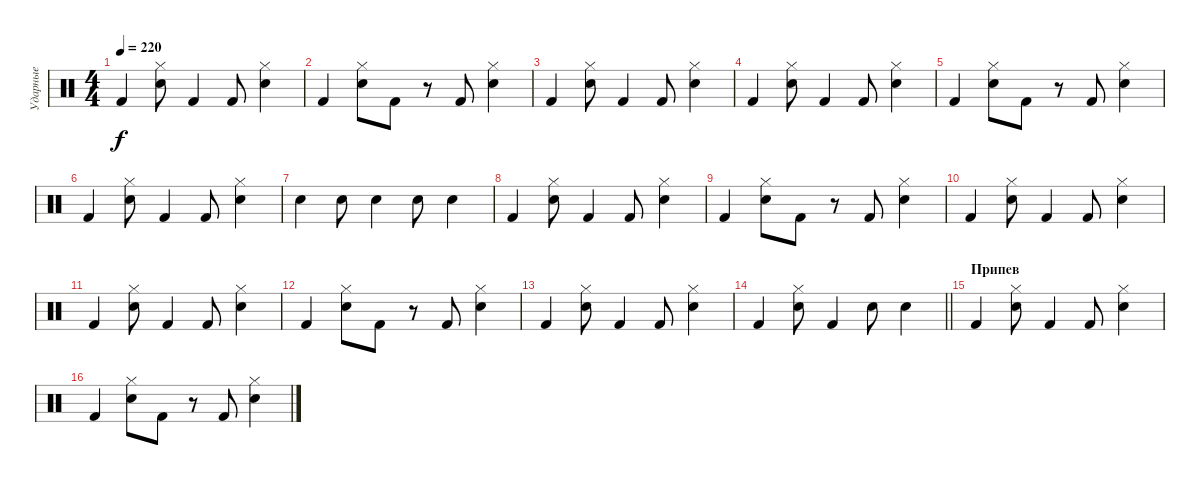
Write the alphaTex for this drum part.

\track ("Ударные" "Ударные") {instrument percussion}
\staff {score}
\articulation defaults
\ts (4 4)
\tempo 220
\clef neutral
\ks c "Kick (hit) 2".4{dy f}
("Hi-Hat (closed)" "Snare (hit) 2").8 "Kick (hit) 2".4 "Kick (hit) 2".8 ("Hi-Hat (closed)" "Snare (hit) 2").4 |
"Kick (hit) 2".4 ("Hi-Hat (closed)" "Snare (hit) 2").8 "Kick (hit) 2".8 r.8 "Kick (hit) 2".8 ("Hi-Hat (closed)" "Snare (hit) 2").4 |
"Kick (hit) 2".4 ("Hi-Hat (closed)" "Snare (hit) 2").8 "Kick (hit) 2".4 "Kick (hit) 2".8 ("Hi-Hat (closed)" "Snare (hit) 2").4 |
"Kick (hit) 2".4 ("Hi-Hat (closed)" "Snare (hit) 2").8 "Kick (hit) 2".4 "Kick (hit) 2".8 ("Hi-Hat (closed)" "Snare (hit) 2").4 |
"Kick (hit) 2".4 ("Hi-Hat (closed)" "Snare (hit) 2").8 "Kick (hit) 2".8 r.8 "Kick (hit) 2".8 ("Hi-Hat (closed)" "Snare (hit) 2").4 |
"Kick (hit) 2".4 ("Hi-Hat (closed)" "Snare (hit) 2").8 "Kick (hit) 2".4 "Kick (hit) 2".8 ("Hi-Hat (closed)" "Snare (hit) 2").4 |
"Snare (hit) 2".4 "Snare (hit) 2".8 "Snare (hit) 2".4 "Snare (hit) 2".8 "Snare (hit) 2".4 |
"Kick (hit) 2".4 ("Hi-Hat (closed)" "Snare (hit) 2").8 "Kick (hit) 2".4 "Kick (hit) 2".8 ("Hi-Hat (closed)" "Snare (hit) 2").4 |
"Kick (hit) 2".4 ("Hi-Hat (closed)" "Snare (hit) 2").8 "Kick (hit) 2".8 r.8 "Kick (hit) 2".8 ("Hi-Hat (closed)" "Snare (hit) 2").4 |
"Kick (hit) 2".4 ("Hi-Hat (closed)" "Snare (hit) 2").8 "Kick (hit) 2".4 "Kick (hit) 2".8 ("Hi-Hat (closed)" "Snare (hit) 2").4 |
"Kick (hit) 2".4 ("Hi-Hat (closed)" "Snare (hit) 2").8 "Kick (hit) 2".4 "Kick (hit) 2".8 ("Hi-Hat (closed)" "Snare (hit) 2").4 |
"Kick (hit) 2".4 ("Hi-Hat (closed)" "Snare (hit) 2").8 "Kick (hit) 2".8 r.8 "Kick (hit) 2".8 ("Hi-Hat (closed)" "Snare (hit) 2").4 |
"Kick (hit) 2".4 ("Hi-Hat (closed)" "Snare (hit) 2").8 "Kick (hit) 2".4 "Kick (hit) 2".8 ("Hi-Hat (closed)" "Snare (hit) 2").4 |
\barLineRight lightlight "Kick (hit) 2".4
("Hi-Hat (closed)" "Snare (hit) 2").8 "Kick (hit) 2".4 "Snare (hit) 2".8 "Snare (hit) 2".4 |
\section ("" "Припев")
"Kick (hit) 2".4 ("Hi-Hat (closed)" "Snare (hit) 2").8 "Kick (hit) 2".4 "Kick (hit) 2".8 ("Hi-Hat (closed)" "Snare (hit) 2").4 |
"Kick (hit) 2".4 ("Hi-Hat (closed)" "Snare (hit) 2").8 "Kick (hit) 2".8 r.8 "Kick (hit) 2".8 ("Hi-Hat (closed)" "Snare (hit) 2").4
